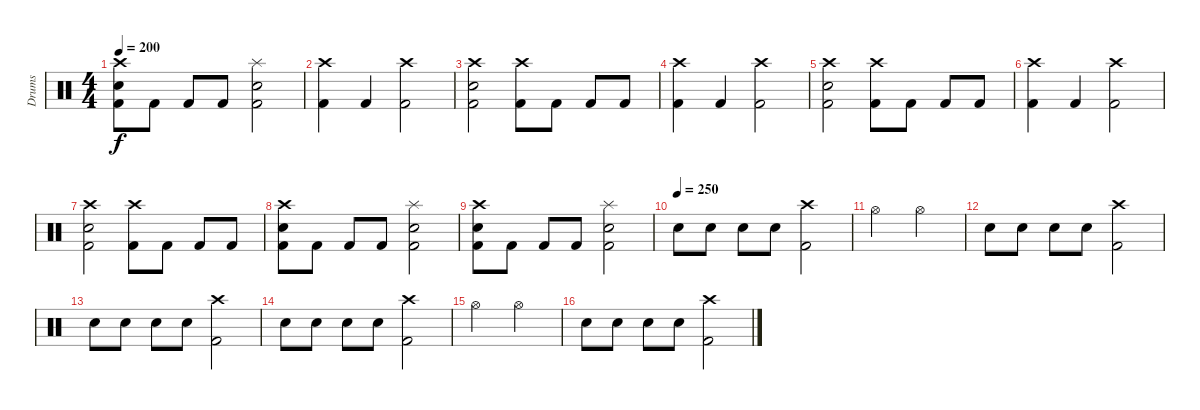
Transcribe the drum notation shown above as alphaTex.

\track ("Drums" "Drums") {instrument percussion}
\staff {score}
\articulation defaults
\ts (4 4)
\tempo 200
\clef neutral
\ks c
("Crash high (hit)" "Snare (hit) 2" "Kick (hit) 2").8{dy f} "Kick (hit) 2".8 "Kick (hit) 2".8 "Kick (hit) 2".8 ("Splash (hit)" "Snare (hit) 2" "Kick (hit) 2").2 |
("Crash high (hit)" "Kick (hit) 2").4 "Kick (hit) 2".4 ("Crash high (hit)" "Kick (hit) 2").2 |
("Crash high (hit)" "Snare (hit) 2" "Kick (hit) 2").2 ("Crash high (hit)" "Kick (hit) 2").8 "Kick (hit) 2".8 "Kick (hit) 2".8 "Kick (hit) 2".8 |
("Crash high (hit)" "Kick (hit) 2").4 "Kick (hit) 2".4 ("Crash high (hit)" "Kick (hit) 2").2 |
("Crash high (hit)" "Snare (hit) 2" "Kick (hit) 2").2 ("Crash high (hit)" "Kick (hit) 2").8 "Kick (hit) 2".8 "Kick (hit) 2".8 "Kick (hit) 2".8 |
("Crash high (hit)" "Kick (hit) 2").4 "Kick (hit) 2".4 ("Crash high (hit)" "Kick (hit) 2").2 |
("Crash high (hit)" "Snare (hit) 2" "Kick (hit) 2").2 ("Crash high (hit)" "Kick (hit) 2").8 "Kick (hit) 2".8 "Kick (hit) 2".8 "Kick (hit) 2".8 |
("Crash high (hit)" "Snare (hit) 2" "Kick (hit) 2").8 "Kick (hit) 2".8 "Kick (hit) 2".8 "Kick (hit) 2".8 ("Splash (hit)" "Snare (hit) 2" "Kick (hit) 2").2 |
("Crash high (hit)" "Snare (hit) 2" "Kick (hit) 2").8 "Kick (hit) 2".8 "Kick (hit) 2".8 "Kick (hit) 2".8 ("Splash (hit)" "Snare (hit) 2" "Kick (hit) 2").2 |
\tempo (250)
"Snare (hit) 2".8 "Snare (hit) 2".8 "Snare (hit) 2".8 "Snare (hit) 2".8 ("Crash high (hit)" "Kick (hit) 2").2 |
"Hi-Hat (open)".2 "Hi-Hat (open)".2 |
"Snare (hit) 2".8 "Snare (hit) 2".8 "Snare (hit) 2".8 "Snare (hit) 2".8 ("Crash high (hit)" "Kick (hit) 2").2 |
"Snare (hit) 2".8 "Snare (hit) 2".8 "Snare (hit) 2".8 "Snare (hit) 2".8 ("Crash high (hit)" "Kick (hit) 2").2 |
"Snare (hit) 2".8 "Snare (hit) 2".8 "Snare (hit) 2".8 "Snare (hit) 2".8 ("Crash high (hit)" "Kick (hit) 2").2 |
"Hi-Hat (open)".2 "Hi-Hat (open)".2 |
"Snare (hit) 2".8 "Snare (hit) 2".8 "Snare (hit) 2".8 "Snare (hit) 2".8 ("Crash high (hit)" "Kick (hit) 2").2
